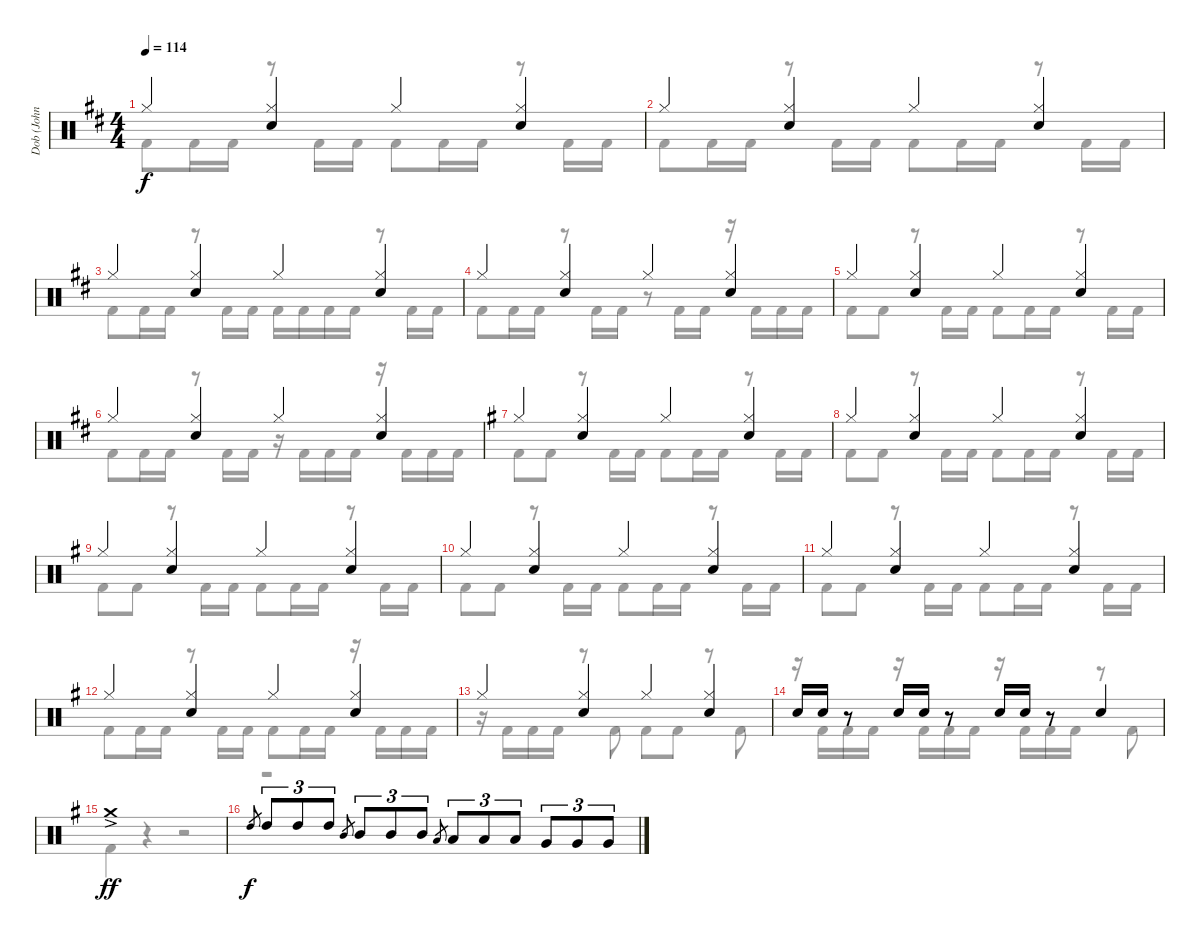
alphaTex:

\track ("Dob (John Macaluso)" "Dob (John ") {instrument percussion}
\staff {score}
\articulation defaults
\voice
\ts (4 4)
\tempo 114
\clef neutral
\ks d "Hi-Hat (closed)".4{dy f}
("Hi-Hat (closed)" "Electric Snare (hit)").4 "Hi-Hat (closed)".4 ("Hi-Hat (closed)" "Electric Snare (hit)").4 |
"Hi-Hat (closed)".4 ("Hi-Hat (closed)" "Electric Snare (hit)").4 "Hi-Hat (closed)".4 ("Hi-Hat (closed)" "Electric Snare (hit)").4 |
"Hi-Hat (closed)".4 ("Hi-Hat (closed)" "Electric Snare (hit)").4 "Hi-Hat (closed)".4 ("Hi-Hat (closed)" "Electric Snare (hit)").4 |
"Hi-Hat (closed)".4 ("Hi-Hat (closed)" "Electric Snare (hit)").4 "Hi-Hat (closed)".4 ("Hi-Hat (closed)" "Electric Snare (hit)").4 |
"Hi-Hat (closed)".4 ("Hi-Hat (closed)" "Electric Snare (hit)").4 "Hi-Hat (closed)".4 ("Hi-Hat (closed)" "Electric Snare (hit)").4 |
"Hi-Hat (closed)".4 ("Hi-Hat (closed)" "Electric Snare (hit)").4 "Hi-Hat (closed)".4 ("Hi-Hat (closed)" "Electric Snare (hit)").4 |
\ks g "Hi-Hat (closed)".4
("Hi-Hat (closed)" "Electric Snare (hit)").4 "Hi-Hat (closed)".4 ("Hi-Hat (closed)" "Electric Snare (hit)").4 |
"Hi-Hat (closed)".4 ("Hi-Hat (closed)" "Electric Snare (hit)").4 "Hi-Hat (closed)".4 ("Hi-Hat (closed)" "Electric Snare (hit)").4 |
"Hi-Hat (closed)".4 ("Hi-Hat (closed)" "Electric Snare (hit)").4 "Hi-Hat (closed)".4 ("Hi-Hat (closed)" "Electric Snare (hit)").4 |
"Hi-Hat (closed)".4 ("Hi-Hat (closed)" "Electric Snare (hit)").4 "Hi-Hat (closed)".4 ("Hi-Hat (closed)" "Electric Snare (hit)").4 |
"Hi-Hat (closed)".4 ("Hi-Hat (closed)" "Electric Snare (hit)").4 "Hi-Hat (closed)".4 ("Hi-Hat (closed)" "Electric Snare (hit)").4 |
"Hi-Hat (closed)".4 ("Hi-Hat (closed)" "Electric Snare (hit)").4 "Hi-Hat (closed)".4 ("Hi-Hat (closed)" "Electric Snare (hit)").4 |
"Hi-Hat (closed)".4 ("Hi-Hat (closed)" "Electric Snare (hit)").4 "Hi-Hat (closed)".4 ("Hi-Hat (closed)" "Electric Snare (hit)").4 |
"Electric Snare (hit)".16 "Electric Snare (hit)".16 r.8 "Electric Snare (hit)".16 "Electric Snare (hit)".16 r.8 "Electric Snare (hit)".16 "Electric Snare (hit)".16 r.8 "Electric Snare (hit)".4 |
"Crash medium (hit)"{ac}.1{dy ff} |
"High Tom (hit)".8{gr dy f} "High Tom (hit)".8{tu (3 2)} "High Tom (hit)".8{tu (3 2)} "High Tom (hit)".8{tu (3 2)} "Mid Tom (hit)".8{gr} "Mid Tom (hit)".8{tu (3 2)} "Mid Tom (hit)".8{tu (3 2)} "Mid Tom (hit)".8{tu (3 2)} "Low Tom (hit)".8{gr} "Low Tom (hit)".8{tu (3 2)} "Low Tom (hit)".8{tu (3 2)} "Low Tom (hit)".8{tu (3 2)} "Very Low Tom (hit)".8{tu (3 2)} "Very Low Tom (hit)".8{tu (3 2)} "Very Low Tom (hit)".8{tu (3 2)}
\voice
\clef neutral
\ottava regular
\simile none
\ks d "Kick (hit) 2".8{dy f} "Kick (hit) 2".16 "Kick (hit) 2".16
r.8 "Kick (hit) 2".16 "Kick (hit) 2".16 "Kick (hit) 2".8 "Kick (hit) 2".16 "Kick (hit) 2".16 r.8 "Kick (hit) 2".16 "Kick (hit) 2".16 |
"Kick (hit) 2".8 "Kick (hit) 2".16 "Kick (hit) 2".16 r.8 "Kick (hit) 2".16 "Kick (hit) 2".16 "Kick (hit) 2".8 "Kick (hit) 2".16 "Kick (hit) 2".16 r.8 "Kick (hit) 2".16 "Kick (hit) 2".16 |
"Kick (hit) 2".8 "Kick (hit) 2".16 "Kick (hit) 2".16 r.8 "Kick (hit) 2".16 "Kick (hit) 2".16 "Kick (hit) 2".16 "Kick (hit) 2".16 "Kick (hit) 2".16 "Kick (hit) 2".16 r.8 "Kick (hit) 2".16 "Kick (hit) 2".16 |
"Kick (hit) 2".8 "Kick (hit) 2".16 "Kick (hit) 2".16 r.8 "Kick (hit) 2".16 "Kick (hit) 2".16 r.8 "Kick (hit) 2".16 "Kick (hit) 2".16 r.16 "Kick (hit) 2".16 "Kick (hit) 2".16 "Kick (hit) 2".16 |
"Kick (hit) 2".8 "Kick (hit) 2".8 r.8 "Kick (hit) 2".16 "Kick (hit) 2".16 "Kick (hit) 2".8 "Kick (hit) 2".16 "Kick (hit) 2".16 r.8 "Kick (hit) 2".16 "Kick (hit) 2".16 |
"Kick (hit) 2".8 "Kick (hit) 2".16 "Kick (hit) 2".16 r.8 "Kick (hit) 2".16 "Kick (hit) 2".16 r.16 "Kick (hit) 2".16 "Kick (hit) 2".16 "Kick (hit) 2".16 r.16 "Kick (hit) 2".16 "Kick (hit) 2".16 "Kick (hit) 2".16 |
\ks g "Kick (hit) 2".8 "Kick (hit) 2".8
r.8 "Kick (hit) 2".16 "Kick (hit) 2".16 "Kick (hit) 2".8 "Kick (hit) 2".16 "Kick (hit) 2".16 r.8 "Kick (hit) 2".16 "Kick (hit) 2".16 |
"Kick (hit) 2".8 "Kick (hit) 2".8 r.8 "Kick (hit) 2".16 "Kick (hit) 2".16 "Kick (hit) 2".8 "Kick (hit) 2".16 "Kick (hit) 2".16 r.8 "Kick (hit) 2".16 "Kick (hit) 2".16 |
"Kick (hit) 2".8 "Kick (hit) 2".8 r.8 "Kick (hit) 2".16 "Kick (hit) 2".16 "Kick (hit) 2".8 "Kick (hit) 2".16 "Kick (hit) 2".16 r.8 "Kick (hit) 2".16 "Kick (hit) 2".16 |
"Kick (hit) 2".8 "Kick (hit) 2".8 r.8 "Kick (hit) 2".16 "Kick (hit) 2".16 "Kick (hit) 2".8 "Kick (hit) 2".16 "Kick (hit) 2".16 r.8 "Kick (hit) 2".16 "Kick (hit) 2".16 |
"Kick (hit) 2".8 "Kick (hit) 2".8 r.8 "Kick (hit) 2".16 "Kick (hit) 2".16 "Kick (hit) 2".8 "Kick (hit) 2".16 "Kick (hit) 2".16 r.8 "Kick (hit) 2".16 "Kick (hit) 2".16 |
"Kick (hit) 2".8 "Kick (hit) 2".16 "Kick (hit) 2".16 r.8 "Kick (hit) 2".16 "Kick (hit) 2".16 "Kick (hit) 2".8 "Kick (hit) 2".16 "Kick (hit) 2".16 r.16 "Kick (hit) 2".16 "Kick (hit) 2".16 "Kick (hit) 2".16 |
r.16 "Kick (hit) 2".16 "Kick (hit) 2".16 "Kick (hit) 2".16 r.8 "Kick (hit) 2".8 "Kick (hit) 2".8 "Kick (hit) 2".8 r.8 "Kick (hit) 2".8 |
r.16 "Kick (hit) 2".16 "Kick (hit) 2".16 "Kick (hit) 2".16 r.16 "Kick (hit) 2".16 "Kick (hit) 2".16 "Kick (hit) 2".16 r.16 "Kick (hit) 2".16 "Kick (hit) 2".16 "Kick (hit) 2".16 r.8 "Kick (hit) 2".8 |
"Kick (hit) 2".4 r.4 r.2 |
r.1
